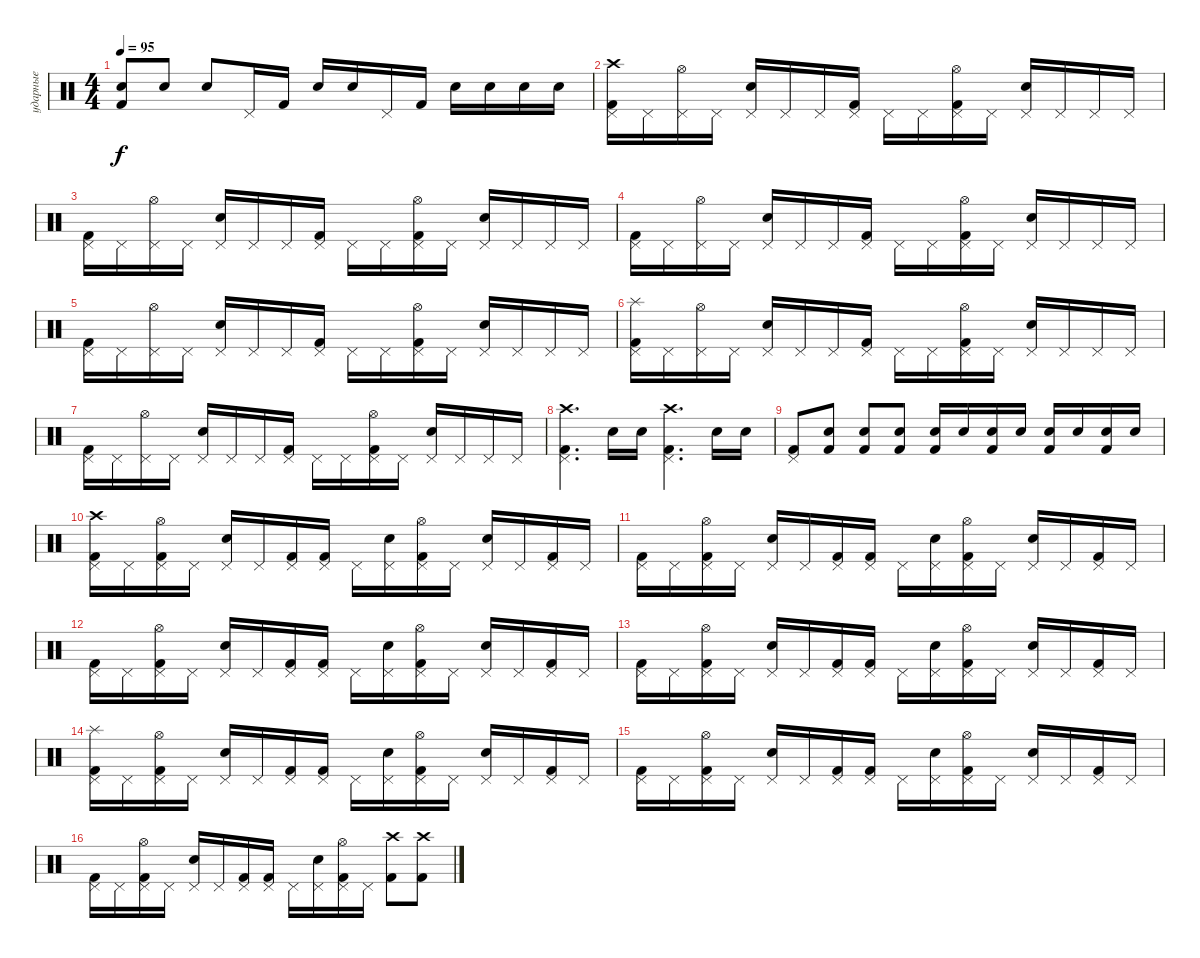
\track ("ударные" "ударные") {instrument percussion}
\staff {score}
\articulation defaults
\ts (4 4)
\tempo 95
\clef neutral
\ks c
("Kick (hit) 2"{t} "Snare (hit)"{t}).8{dy f} "Snare (hit) 2".8 "Snare (hit) 2".8 "Pedal Hi-Hat (hit)".16 "Kick (hit) 2".16 "Snare (hit) 2".16 "Snare (hit) 2".16 "Pedal Hi-Hat (hit)".16 "Kick (hit) 2".16 "Snare (hit) 2".16 "Snare (hit) 2".16 "Snare (hit) 2".16 "Snare (hit) 2".16 |
("Kick (hit) 2" "Crash high (hit)" "Pedal Hi-Hat (hit)").16 "Pedal Hi-Hat (hit)".16 ("Pedal Hi-Hat (hit)" "Hi-Hat (open)").16 "Pedal Hi-Hat (hit)".16 ("Snare (hit) 2" "Pedal Hi-Hat (hit)").16 "Pedal Hi-Hat (hit)".16 "Pedal Hi-Hat (hit)".16 ("Kick (hit) 2" "Pedal Hi-Hat (hit)").16 "Pedal Hi-Hat (hit)".16 "Pedal Hi-Hat (hit)".16 ("Kick (hit) 2" "Pedal Hi-Hat (hit)" "Hi-Hat (open)").16 "Pedal Hi-Hat (hit)".16 ("Snare (hit) 2" "Pedal Hi-Hat (hit)").16 "Pedal Hi-Hat (hit)".16 "Pedal Hi-Hat (hit)".16 "Pedal Hi-Hat (hit)".16 |
("Kick (hit) 2" "Pedal Hi-Hat (hit)").16 "Pedal Hi-Hat (hit)".16 ("Pedal Hi-Hat (hit)" "Hi-Hat (open)").16 "Pedal Hi-Hat (hit)".16 ("Snare (hit) 2" "Pedal Hi-Hat (hit)").16 "Pedal Hi-Hat (hit)".16 "Pedal Hi-Hat (hit)".16 ("Kick (hit) 2" "Pedal Hi-Hat (hit)").16 "Pedal Hi-Hat (hit)".16 "Pedal Hi-Hat (hit)".16 ("Kick (hit) 2" "Pedal Hi-Hat (hit)" "Hi-Hat (open)").16 "Pedal Hi-Hat (hit)".16 ("Snare (hit) 2" "Pedal Hi-Hat (hit)").16 "Pedal Hi-Hat (hit)".16 "Pedal Hi-Hat (hit)".16 "Pedal Hi-Hat (hit)".16 |
("Kick (hit) 2" "Pedal Hi-Hat (hit)").16 "Pedal Hi-Hat (hit)".16 ("Pedal Hi-Hat (hit)" "Hi-Hat (open)").16 "Pedal Hi-Hat (hit)".16 ("Snare (hit) 2" "Pedal Hi-Hat (hit)").16 "Pedal Hi-Hat (hit)".16 "Pedal Hi-Hat (hit)".16 ("Kick (hit) 2" "Pedal Hi-Hat (hit)").16 "Pedal Hi-Hat (hit)".16 "Pedal Hi-Hat (hit)".16 ("Kick (hit) 2" "Pedal Hi-Hat (hit)" "Hi-Hat (open)").16 "Pedal Hi-Hat (hit)".16 ("Snare (hit) 2" "Pedal Hi-Hat (hit)").16 "Pedal Hi-Hat (hit)".16 "Pedal Hi-Hat (hit)".16 "Pedal Hi-Hat (hit)".16 |
("Kick (hit) 2" "Pedal Hi-Hat (hit)").16 "Pedal Hi-Hat (hit)".16 ("Pedal Hi-Hat (hit)" "Hi-Hat (open)").16 "Pedal Hi-Hat (hit)".16 ("Snare (hit) 2" "Pedal Hi-Hat (hit)").16 "Pedal Hi-Hat (hit)".16 "Pedal Hi-Hat (hit)".16 ("Kick (hit) 2" "Pedal Hi-Hat (hit)").16 "Pedal Hi-Hat (hit)".16 "Pedal Hi-Hat (hit)".16 ("Kick (hit) 2" "Pedal Hi-Hat (hit)" "Hi-Hat (open)").16 "Pedal Hi-Hat (hit)".16 ("Snare (hit) 2" "Pedal Hi-Hat (hit)").16 "Pedal Hi-Hat (hit)".16 "Pedal Hi-Hat (hit)".16 "Pedal Hi-Hat (hit)".16 |
("Kick (hit) 2" "Splash (hit)" "Pedal Hi-Hat (hit)").16 "Pedal Hi-Hat (hit)".16 ("Pedal Hi-Hat (hit)" "Hi-Hat (open)").16 "Pedal Hi-Hat (hit)".16 ("Snare (hit) 2" "Pedal Hi-Hat (hit)").16 "Pedal Hi-Hat (hit)".16 "Pedal Hi-Hat (hit)".16 ("Kick (hit) 2" "Pedal Hi-Hat (hit)").16 "Pedal Hi-Hat (hit)".16 "Pedal Hi-Hat (hit)".16 ("Kick (hit) 2" "Pedal Hi-Hat (hit)" "Hi-Hat (open)").16 "Pedal Hi-Hat (hit)".16 ("Snare (hit) 2" "Pedal Hi-Hat (hit)").16 "Pedal Hi-Hat (hit)".16 "Pedal Hi-Hat (hit)".16 "Pedal Hi-Hat (hit)".16 |
("Kick (hit) 2" "Pedal Hi-Hat (hit)").16 "Pedal Hi-Hat (hit)".16 ("Pedal Hi-Hat (hit)" "Hi-Hat (open)").16 "Pedal Hi-Hat (hit)".16 ("Snare (hit) 2" "Pedal Hi-Hat (hit)").16 "Pedal Hi-Hat (hit)".16 "Pedal Hi-Hat (hit)".16 ("Kick (hit) 2" "Pedal Hi-Hat (hit)").16 "Pedal Hi-Hat (hit)".16 "Pedal Hi-Hat (hit)".16 ("Kick (hit) 2" "Pedal Hi-Hat (hit)" "Hi-Hat (open)").16 "Pedal Hi-Hat (hit)".16 ("Snare (hit) 2" "Pedal Hi-Hat (hit)").16 "Pedal Hi-Hat (hit)".16 "Pedal Hi-Hat (hit)".16 "Pedal Hi-Hat (hit)".16 |
("Kick (hit) 2" "Pedal Hi-Hat (hit)" "Crash high (hit)").4{d} "Snare (hit) 2".16 "Snare (hit) 2".16 ("Kick (hit) 2" "Pedal Hi-Hat (hit)" "Crash high (hit)").4{d} "Snare (hit) 2".16 "Snare (hit) 2".16 |
("Kick (hit) 2" "Pedal Hi-Hat (hit)").8 ("Kick (hit) 2" "Snare (hit) 2").8 ("Kick (hit) 2" "Snare (hit) 2").8 ("Kick (hit) 2" "Snare (hit) 2").8 ("Kick (hit) 2" "Snare (hit) 2").16 "Snare (hit) 2".16 ("Kick (hit) 2" "Snare (hit) 2").16 "Snare (hit) 2".16 ("Kick (hit) 2" "Snare (hit) 2").16 "Snare (hit) 2".16 ("Kick (hit) 2" "Snare (hit) 2").16 "Snare (hit) 2".16 |
("Kick (hit) 2" "Pedal Hi-Hat (hit)" "Crash high (hit)").16 "Pedal Hi-Hat (hit)".16 ("Kick (hit) 2" "Pedal Hi-Hat (hit)" "Hi-Hat (open)").16 "Pedal Hi-Hat (hit)".16 ("Electric Snare (hit)" "Pedal Hi-Hat (hit)").16 "Pedal Hi-Hat (hit)".16 ("Kick (hit) 2" "Pedal Hi-Hat (hit)").16 ("Kick (hit) 2" "Pedal Hi-Hat (hit)").16 "Pedal Hi-Hat (hit)".16 ("Electric Snare (hit)" "Pedal Hi-Hat (hit)").16 ("Kick (hit) 2" "Pedal Hi-Hat (hit)" "Hi-Hat (open)").16 "Pedal Hi-Hat (hit)".16 ("Electric Snare (hit)" "Pedal Hi-Hat (hit)").16 "Pedal Hi-Hat (hit)".16 ("Kick (hit) 2" "Pedal Hi-Hat (hit)").16 "Pedal Hi-Hat (hit)".16 |
("Kick (hit) 2" "Pedal Hi-Hat (hit)").16 "Pedal Hi-Hat (hit)".16 ("Kick (hit) 2" "Pedal Hi-Hat (hit)" "Hi-Hat (open)").16 "Pedal Hi-Hat (hit)".16 ("Electric Snare (hit)" "Pedal Hi-Hat (hit)").16 "Pedal Hi-Hat (hit)".16 ("Kick (hit) 2" "Pedal Hi-Hat (hit)").16 ("Kick (hit) 2" "Pedal Hi-Hat (hit)").16 "Pedal Hi-Hat (hit)".16 ("Electric Snare (hit)" "Pedal Hi-Hat (hit)").16 ("Kick (hit) 2" "Pedal Hi-Hat (hit)" "Hi-Hat (open)").16 "Pedal Hi-Hat (hit)".16 ("Electric Snare (hit)" "Pedal Hi-Hat (hit)").16 "Pedal Hi-Hat (hit)".16 ("Kick (hit) 2" "Pedal Hi-Hat (hit)").16 "Pedal Hi-Hat (hit)".16 |
("Kick (hit) 2" "Pedal Hi-Hat (hit)").16 "Pedal Hi-Hat (hit)".16 ("Kick (hit) 2" "Pedal Hi-Hat (hit)" "Hi-Hat (open)").16 "Pedal Hi-Hat (hit)".16 ("Electric Snare (hit)" "Pedal Hi-Hat (hit)").16 "Pedal Hi-Hat (hit)".16 ("Kick (hit) 2" "Pedal Hi-Hat (hit)").16 ("Kick (hit) 2" "Pedal Hi-Hat (hit)").16 "Pedal Hi-Hat (hit)".16 ("Electric Snare (hit)" "Pedal Hi-Hat (hit)").16 ("Kick (hit) 2" "Pedal Hi-Hat (hit)" "Hi-Hat (open)").16 "Pedal Hi-Hat (hit)".16 ("Electric Snare (hit)" "Pedal Hi-Hat (hit)").16 "Pedal Hi-Hat (hit)".16 ("Kick (hit) 2" "Pedal Hi-Hat (hit)").16 "Pedal Hi-Hat (hit)".16 |
("Kick (hit) 2" "Pedal Hi-Hat (hit)").16 "Pedal Hi-Hat (hit)".16 ("Kick (hit) 2" "Pedal Hi-Hat (hit)" "Hi-Hat (open)").16 "Pedal Hi-Hat (hit)".16 ("Electric Snare (hit)" "Pedal Hi-Hat (hit)").16 "Pedal Hi-Hat (hit)".16 ("Kick (hit) 2" "Pedal Hi-Hat (hit)").16 ("Kick (hit) 2" "Pedal Hi-Hat (hit)").16 "Pedal Hi-Hat (hit)".16 ("Electric Snare (hit)" "Pedal Hi-Hat (hit)").16 ("Kick (hit) 2" "Pedal Hi-Hat (hit)" "Hi-Hat (open)").16 "Pedal Hi-Hat (hit)".16 ("Electric Snare (hit)" "Pedal Hi-Hat (hit)").16 "Pedal Hi-Hat (hit)".16 ("Kick (hit) 2" "Pedal Hi-Hat (hit)").16 "Pedal Hi-Hat (hit)".16 |
("Kick (hit) 2" "Pedal Hi-Hat (hit)" "Splash (hit)").16 "Pedal Hi-Hat (hit)".16 ("Kick (hit) 2" "Pedal Hi-Hat (hit)" "Hi-Hat (open)").16 "Pedal Hi-Hat (hit)".16 ("Electric Snare (hit)" "Pedal Hi-Hat (hit)").16 "Pedal Hi-Hat (hit)".16 ("Kick (hit) 2" "Pedal Hi-Hat (hit)").16 ("Kick (hit) 2" "Pedal Hi-Hat (hit)").16 "Pedal Hi-Hat (hit)".16 ("Electric Snare (hit)" "Pedal Hi-Hat (hit)").16 ("Kick (hit) 2" "Pedal Hi-Hat (hit)" "Hi-Hat (open)").16 "Pedal Hi-Hat (hit)".16 ("Electric Snare (hit)" "Pedal Hi-Hat (hit)").16 "Pedal Hi-Hat (hit)".16 ("Kick (hit) 2" "Pedal Hi-Hat (hit)").16 "Pedal Hi-Hat (hit)".16 |
("Kick (hit) 2" "Pedal Hi-Hat (hit)").16 "Pedal Hi-Hat (hit)".16 ("Kick (hit) 2" "Pedal Hi-Hat (hit)" "Hi-Hat (open)").16 "Pedal Hi-Hat (hit)".16 ("Electric Snare (hit)" "Pedal Hi-Hat (hit)").16 "Pedal Hi-Hat (hit)".16 ("Kick (hit) 2" "Pedal Hi-Hat (hit)").16 ("Kick (hit) 2" "Pedal Hi-Hat (hit)").16 "Pedal Hi-Hat (hit)".16 ("Electric Snare (hit)" "Pedal Hi-Hat (hit)").16 ("Kick (hit) 2" "Pedal Hi-Hat (hit)" "Hi-Hat (open)").16 "Pedal Hi-Hat (hit)".16 ("Electric Snare (hit)" "Pedal Hi-Hat (hit)").16 "Pedal Hi-Hat (hit)".16 ("Kick (hit) 2" "Pedal Hi-Hat (hit)").16 "Pedal Hi-Hat (hit)".16 |
("Kick (hit) 2" "Pedal Hi-Hat (hit)").16 "Pedal Hi-Hat (hit)".16 ("Kick (hit) 2" "Pedal Hi-Hat (hit)" "Hi-Hat (open)").16 "Pedal Hi-Hat (hit)".16 ("Electric Snare (hit)" "Pedal Hi-Hat (hit)").16 "Pedal Hi-Hat (hit)".16 ("Kick (hit) 2" "Pedal Hi-Hat (hit)").16 ("Kick (hit) 2" "Pedal Hi-Hat (hit)").16 "Pedal Hi-Hat (hit)".16 ("Electric Snare (hit)" "Pedal Hi-Hat (hit)").16 ("Kick (hit) 2" "Pedal Hi-Hat (hit)" "Hi-Hat (open)").16 "Pedal Hi-Hat (hit)".16 ("Kick (hit) 2" "Crash high (hit)").8 ("Kick (hit) 2" "Crash high (hit)").8
